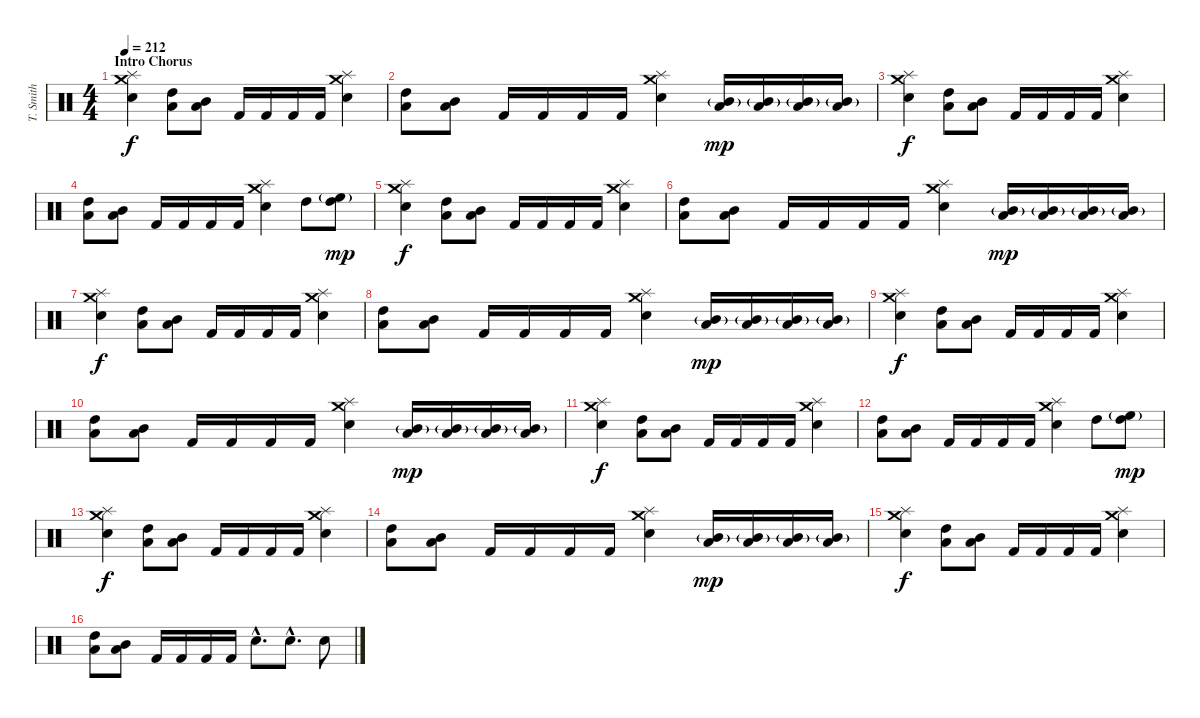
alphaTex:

\track ("T. Smith" "T. Smith") {instrument percussion}
\staff {score}
\articulation defaults
\ts (4 4)
\section ("" "Intro Chorus")
\tempo 212
\clef neutral
\ks c
("Crash medium (hit)" "Splash (hit)" "Electric Snare (hit)").4{dy f} ("High Tom (hit)" "Low Tom (hit)").8 ("Mid Tom (hit)" "Low Tom (hit)").8 "Kick (hit) 2".16 "Kick (hit) 2".16 "Kick (hit) 2".16 "Kick (hit) 2".16 ("Crash medium (hit)" "Splash (hit)" "Electric Snare (hit)").4 |
("High Tom (hit)" "Low Tom (hit)").8 ("Mid Tom (hit)" "Low Tom (hit)").8 "Kick (hit) 2".16 "Kick (hit) 2".16 "Kick (hit) 2".16 "Kick (hit) 2".16 ("Crash medium (hit)" "Splash (hit)" "Electric Snare (hit)").4 ("Mid Tom (hit)"{g} "Low Tom (hit)").16{dy mp} ("Mid Tom (hit)"{g} "Low Tom (hit)").16 ("Mid Tom (hit)"{g} "Low Tom (hit)").16 ("Mid Tom (hit)"{g} "Low Tom (hit)").16 |
("Crash medium (hit)" "Splash (hit)" "Electric Snare (hit)").4{dy f} ("High Tom (hit)" "Low Tom (hit)").8 ("Mid Tom (hit)" "Low Tom (hit)").8 "Kick (hit) 2".16 "Kick (hit) 2".16 "Kick (hit) 2".16 "Kick (hit) 2".16 ("Crash medium (hit)" "Splash (hit)" "Electric Snare (hit)").4 |
("High Tom (hit)" "Low Tom (hit)").8 ("Mid Tom (hit)" "Low Tom (hit)").8 "Kick (hit) 2".16 "Kick (hit) 2".16 "Kick (hit) 2".16 "Kick (hit) 2".16 ("Crash medium (hit)" "Splash (hit)" "Electric Snare (hit)").4 "High Tom (hit)".8 ("High Floor Tom (hit)"{g} "High Tom (hit)").8{dy mp} |
("Crash medium (hit)" "Splash (hit)" "Electric Snare (hit)").4{dy f} ("High Tom (hit)" "Low Tom (hit)").8 ("Mid Tom (hit)" "Low Tom (hit)").8 "Kick (hit) 2".16 "Kick (hit) 2".16 "Kick (hit) 2".16 "Kick (hit) 2".16 ("Crash medium (hit)" "Splash (hit)" "Electric Snare (hit)").4 |
("High Tom (hit)" "Low Tom (hit)").8 ("Mid Tom (hit)" "Low Tom (hit)").8 "Kick (hit) 2".16 "Kick (hit) 2".16 "Kick (hit) 2".16 "Kick (hit) 2".16 ("Crash medium (hit)" "Splash (hit)" "Electric Snare (hit)").4 ("Mid Tom (hit)"{g} "Low Tom (hit)").16{dy mp} ("Mid Tom (hit)"{g} "Low Tom (hit)").16 ("Mid Tom (hit)"{g} "Low Tom (hit)").16 ("Mid Tom (hit)"{g} "Low Tom (hit)").16 |
("Crash medium (hit)" "Splash (hit)" "Electric Snare (hit)").4{dy f} ("High Tom (hit)" "Low Tom (hit)").8 ("Mid Tom (hit)" "Low Tom (hit)").8 "Kick (hit) 2".16 "Kick (hit) 2".16 "Kick (hit) 2".16 "Kick (hit) 2".16 ("Crash medium (hit)" "Splash (hit)" "Electric Snare (hit)").4 |
("High Tom (hit)" "Low Tom (hit)").8 ("Mid Tom (hit)" "Low Tom (hit)").8 "Kick (hit) 2".16 "Kick (hit) 2".16 "Kick (hit) 2".16 "Kick (hit) 2".16 ("Crash medium (hit)" "Splash (hit)" "Electric Snare (hit)").4 ("Mid Tom (hit)"{g} "Low Tom (hit)").16{dy mp} ("Mid Tom (hit)"{g} "Low Tom (hit)").16 ("Mid Tom (hit)"{g} "Low Tom (hit)").16 ("Mid Tom (hit)"{g} "Low Tom (hit)").16 |
("Crash medium (hit)" "Splash (hit)" "Electric Snare (hit)").4{dy f} ("High Tom (hit)" "Low Tom (hit)").8 ("Mid Tom (hit)" "Low Tom (hit)").8 "Kick (hit) 2".16 "Kick (hit) 2".16 "Kick (hit) 2".16 "Kick (hit) 2".16 ("Crash medium (hit)" "Splash (hit)" "Electric Snare (hit)").4 |
("High Tom (hit)" "Low Tom (hit)").8 ("Mid Tom (hit)" "Low Tom (hit)").8 "Kick (hit) 2".16 "Kick (hit) 2".16 "Kick (hit) 2".16 "Kick (hit) 2".16 ("Crash medium (hit)" "Splash (hit)" "Electric Snare (hit)").4 ("Mid Tom (hit)"{g} "Low Tom (hit)").16{dy mp} ("Mid Tom (hit)"{g} "Low Tom (hit)").16 ("Mid Tom (hit)"{g} "Low Tom (hit)").16 ("Mid Tom (hit)"{g} "Low Tom (hit)").16 |
("Crash medium (hit)" "Splash (hit)" "Electric Snare (hit)").4{dy f} ("High Tom (hit)" "Low Tom (hit)").8 ("Mid Tom (hit)" "Low Tom (hit)").8 "Kick (hit) 2".16 "Kick (hit) 2".16 "Kick (hit) 2".16 "Kick (hit) 2".16 ("Crash medium (hit)" "Splash (hit)" "Electric Snare (hit)").4 |
("High Tom (hit)" "Low Tom (hit)").8 ("Mid Tom (hit)" "Low Tom (hit)").8 "Kick (hit) 2".16 "Kick (hit) 2".16 "Kick (hit) 2".16 "Kick (hit) 2".16 ("Crash medium (hit)" "Splash (hit)" "Electric Snare (hit)").4 "High Tom (hit)".8 ("High Floor Tom (hit)"{g} "High Tom (hit)").8{dy mp} |
("Crash medium (hit)" "Splash (hit)" "Electric Snare (hit)").4{dy f} ("High Tom (hit)" "Low Tom (hit)").8 ("Mid Tom (hit)" "Low Tom (hit)").8 "Kick (hit) 2".16 "Kick (hit) 2".16 "Kick (hit) 2".16 "Kick (hit) 2".16 ("Crash medium (hit)" "Splash (hit)" "Electric Snare (hit)").4 |
("High Tom (hit)" "Low Tom (hit)").8 ("Mid Tom (hit)" "Low Tom (hit)").8 "Kick (hit) 2".16 "Kick (hit) 2".16 "Kick (hit) 2".16 "Kick (hit) 2".16 ("Crash medium (hit)" "Splash (hit)" "Electric Snare (hit)").4 ("Mid Tom (hit)"{g} "Low Tom (hit)").16{dy mp} ("Mid Tom (hit)"{g} "Low Tom (hit)").16 ("Mid Tom (hit)"{g} "Low Tom (hit)").16 ("Mid Tom (hit)"{g} "Low Tom (hit)").16 |
("Crash medium (hit)" "Splash (hit)" "Electric Snare (hit)").4{dy f} ("High Tom (hit)" "Low Tom (hit)").8 ("Mid Tom (hit)" "Low Tom (hit)").8 "Kick (hit) 2".16 "Kick (hit) 2".16 "Kick (hit) 2".16 "Kick (hit) 2".16 ("Crash medium (hit)" "Splash (hit)" "Electric Snare (hit)").4 |
("High Tom (hit)" "Low Tom (hit)").8 ("Mid Tom (hit)" "Low Tom (hit)").8 "Kick (hit) 2".16 "Kick (hit) 2".16 "Kick (hit) 2".16 "Kick (hit) 2".16 "Electric Snare (hit)"{hac}.8{d} "Electric Snare (hit)"{hac}.8{d} "Electric Snare (hit)".8
